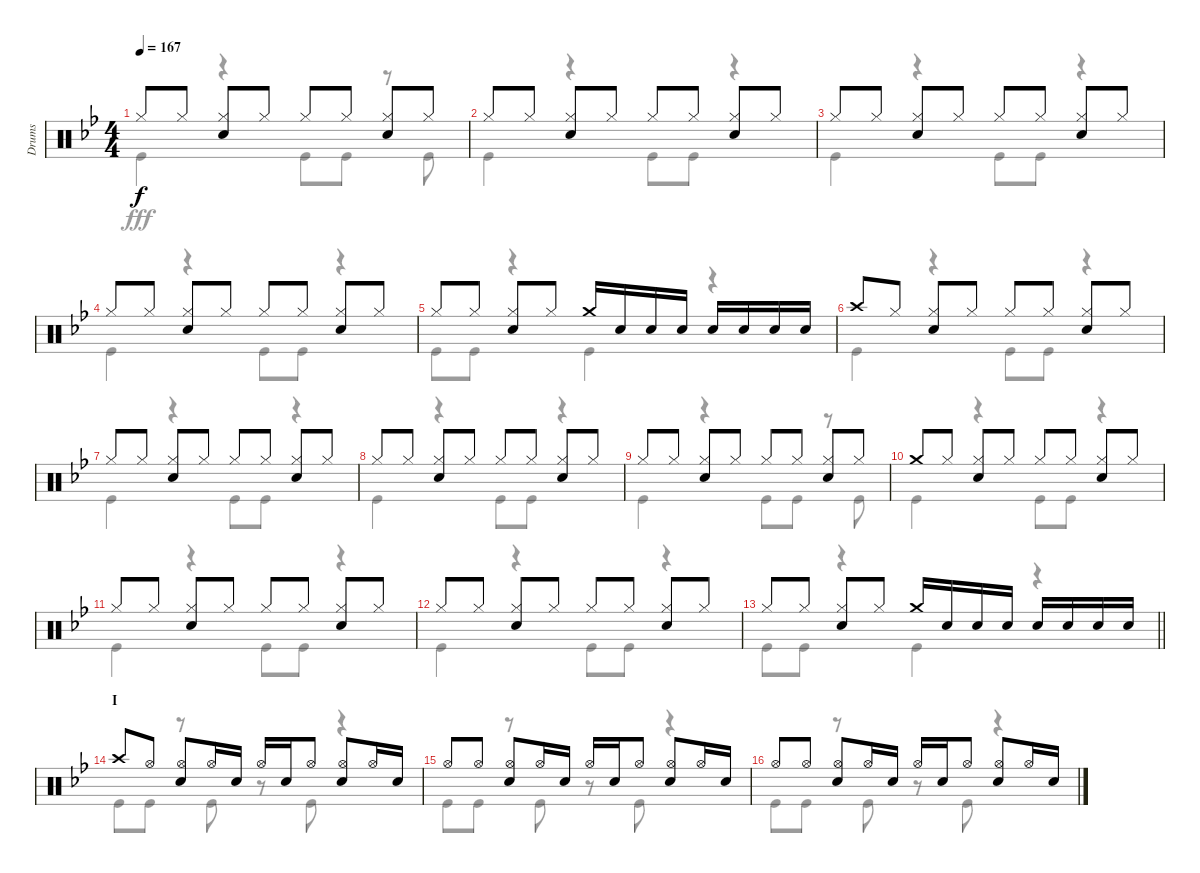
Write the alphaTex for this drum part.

\track ("Drums" "Drums") {instrument percussion}
\staff {score}
\articulation defaults
\voice
\ts (4 4)
\tempo 167
\clef neutral
\ks bb "Hi-Hat (closed)".8{dy f} "Hi-Hat (closed)".8
("Hi-Hat (closed)" "Snare (hit) 2").8 "Hi-Hat (closed)".8 "Hi-Hat (closed)".8 "Hi-Hat (closed)".8 ("Hi-Hat (closed)" "Snare (hit) 2").8 "Hi-Hat (closed)".8 |
"Hi-Hat (closed)".8 "Hi-Hat (closed)".8 ("Hi-Hat (closed)" "Snare (hit) 2").8 "Hi-Hat (closed)".8 "Hi-Hat (closed)".8 "Hi-Hat (closed)".8 ("Hi-Hat (closed)" "Snare (hit) 2").8 "Hi-Hat (closed)".8 |
"Hi-Hat (closed)".8 "Hi-Hat (closed)".8 ("Hi-Hat (closed)" "Snare (hit) 2").8 "Hi-Hat (closed)".8 "Hi-Hat (closed)".8 "Hi-Hat (closed)".8 ("Hi-Hat (closed)" "Snare (hit) 2").8 "Hi-Hat (closed)".8 |
"Hi-Hat (closed)".8 "Hi-Hat (closed)".8 ("Hi-Hat (closed)" "Snare (hit) 2").8 "Hi-Hat (closed)".8 "Hi-Hat (closed)".8 "Hi-Hat (closed)".8 ("Hi-Hat (closed)" "Snare (hit) 2").8 "Hi-Hat (closed)".8 |
"Hi-Hat (closed)".8 "Hi-Hat (closed)".8 ("Hi-Hat (closed)" "Snare (hit) 2").8 "Hi-Hat (closed)".8 "Crash medium (hit)".16 "Snare (hit) 2".16 "Snare (hit) 2".16 "Snare (hit) 2".16 "Snare (hit) 2".16 "Snare (hit) 2".16 "Snare (hit) 2".16 "Snare (hit) 2".16 |
"Crash high (hit)".8 "Hi-Hat (closed)".8 ("Hi-Hat (closed)" "Snare (hit) 2").8 "Hi-Hat (closed)".8 "Hi-Hat (closed)".8 "Hi-Hat (closed)".8 ("Hi-Hat (closed)" "Snare (hit) 2").8 "Hi-Hat (closed)".8 |
"Hi-Hat (closed)".8 "Hi-Hat (closed)".8 ("Hi-Hat (closed)" "Snare (hit) 2").8 "Hi-Hat (closed)".8 "Hi-Hat (closed)".8 "Hi-Hat (closed)".8 ("Hi-Hat (closed)" "Snare (hit) 2").8 "Hi-Hat (closed)".8 |
"Hi-Hat (closed)".8 "Hi-Hat (closed)".8 ("Hi-Hat (closed)" "Snare (hit) 2").8 "Hi-Hat (closed)".8 "Hi-Hat (closed)".8 "Hi-Hat (closed)".8 ("Hi-Hat (closed)" "Snare (hit) 2").8 "Hi-Hat (closed)".8 |
"Hi-Hat (closed)".8 "Hi-Hat (closed)".8 ("Hi-Hat (closed)" "Snare (hit) 2").8 "Hi-Hat (closed)".8 "Hi-Hat (closed)".8 "Hi-Hat (closed)".8 ("Hi-Hat (closed)" "Snare (hit) 2").8 "Hi-Hat (closed)".8 |
"Crash medium (hit)".8 "Hi-Hat (closed)".8 ("Hi-Hat (closed)" "Snare (hit) 2").8 "Hi-Hat (closed)".8 "Hi-Hat (closed)".8 "Hi-Hat (closed)".8 ("Hi-Hat (closed)" "Snare (hit) 2").8 "Hi-Hat (closed)".8 |
"Hi-Hat (closed)".8 "Hi-Hat (closed)".8 ("Hi-Hat (closed)" "Snare (hit) 2").8 "Hi-Hat (closed)".8 "Hi-Hat (closed)".8 "Hi-Hat (closed)".8 ("Hi-Hat (closed)" "Snare (hit) 2").8 "Hi-Hat (closed)".8 |
"Hi-Hat (closed)".8 "Hi-Hat (closed)".8 ("Hi-Hat (closed)" "Snare (hit) 2").8 "Hi-Hat (closed)".8 "Hi-Hat (closed)".8 "Hi-Hat (closed)".8 ("Hi-Hat (closed)" "Snare (hit) 2").8 "Hi-Hat (closed)".8 |
\barLineRight lightlight "Hi-Hat (closed)".8 "Hi-Hat (closed)".8
("Hi-Hat (closed)" "Snare (hit) 2").8 "Hi-Hat (closed)".8 "Crash medium (hit)".16 "Snare (hit) 2".16 "Snare (hit) 2".16 "Snare (hit) 2".16 "Snare (hit) 2".16 "Snare (hit) 2".16 "Snare (hit) 2".16 "Snare (hit) 2".16 |
\section ("" "I")
"Crash high (hit)".8 "Hi-Hat (open)".8 ("Hi-Hat (open)" "Snare (hit) 2").8 "Hi-Hat (open)".16 "Snare (hit) 2".16 "Hi-Hat (open)".16 "Snare (hit) 2".16 "Hi-Hat (open)".8 ("Hi-Hat (open)" "Snare (hit) 2").8 "Hi-Hat (open)".16 "Snare (hit) 2".16 |
"Hi-Hat (open)".8 "Hi-Hat (open)".8 ("Hi-Hat (open)" "Snare (hit) 2").8 "Hi-Hat (open)".16 "Snare (hit) 2".16 "Hi-Hat (open)".16 "Snare (hit) 2".16 "Hi-Hat (open)".8 ("Hi-Hat (open)" "Snare (hit) 2").8 "Hi-Hat (open)".16 "Snare (hit) 2".16 |
"Hi-Hat (open)".8 "Hi-Hat (open)".8 ("Hi-Hat (open)" "Snare (hit) 2").8 "Hi-Hat (open)".16 "Snare (hit) 2".16 "Hi-Hat (open)".16 "Snare (hit) 2".16 "Hi-Hat (open)".8 ("Hi-Hat (open)" "Snare (hit) 2").8 "Hi-Hat (open)".16 "Snare (hit) 2".16
\voice
\clef neutral
\ottava regular
\simile none
\ks bb "Kick (hit)".4{dy fff}
r.4 "Kick (hit)".8 "Kick (hit)".8 r.8 "Kick (hit)".8 |
"Kick (hit)".4 r.4 "Kick (hit)".8 "Kick (hit)".8 r.4 |
"Kick (hit)".4 r.4 "Kick (hit)".8 "Kick (hit)".8 r.4 |
"Kick (hit)".4 r.4 "Kick (hit)".8 "Kick (hit)".8 r.4 |
"Kick (hit)".8 "Kick (hit)".8 r.4 "Kick (hit)".4 r.4 |
"Kick (hit)".4 r.4 "Kick (hit)".8 "Kick (hit)".8 r.4 |
"Kick (hit)".4 r.4 "Kick (hit)".8 "Kick (hit)".8 r.4 |
"Kick (hit)".4 r.4 "Kick (hit)".8 "Kick (hit)".8 r.4 |
"Kick (hit)".4 r.4 "Kick (hit)".8 "Kick (hit)".8 r.8 "Kick (hit)".8 |
"Kick (hit)".4 r.4 "Kick (hit)".8 "Kick (hit)".8 r.4 |
"Kick (hit)".4 r.4 "Kick (hit)".8 "Kick (hit)".8 r.4 |
"Kick (hit)".4 r.4 "Kick (hit)".8 "Kick (hit)".8 r.4 |
\barLineRight lightlight "Kick (hit)".8 "Kick (hit)".8
r.4 "Kick (hit)".4 r.4 |
"Kick (hit)".8 "Kick (hit)".8 r.8 "Kick (hit)".8 r.8 "Kick (hit)".8 r.4 |
"Kick (hit)".8 "Kick (hit)".8 r.8 "Kick (hit)".8 r.8 "Kick (hit)".8 r.4 |
"Kick (hit)".8 "Kick (hit)".8 r.8 "Kick (hit)".8 r.8 "Kick (hit)".8 r.4
